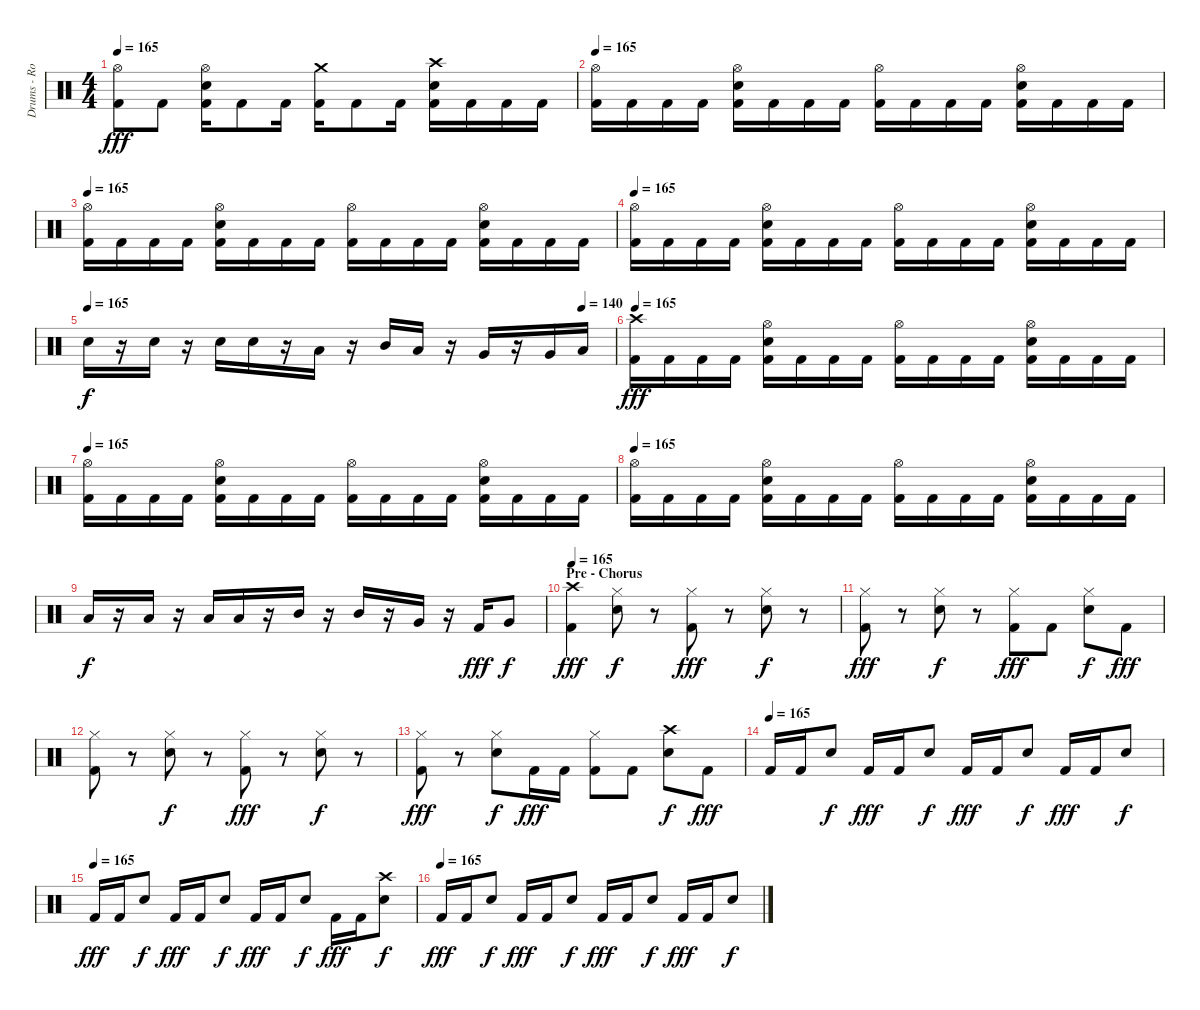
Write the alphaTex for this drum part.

\track ("Drums - Rodrigo" "Drums - Ro") {instrument percussion}
\staff {score}
\articulation defaults
\ts (4 4)
\tempo 165
\clef neutral
\ks c
("Hi-Hat (open)" "Kick (hit) 2").8{dy fff} "Kick (hit) 2".8 ("Hi-Hat (open)" "Electric Snare (hit)" "Kick (hit) 2").16 "Kick (hit) 2".8 "Kick (hit) 2".16 ("Crash medium (hit)" "Kick (hit) 2").16 "Kick (hit) 2".8 "Kick (hit) 2".16 ("Crash high (hit)" "Electric Snare (hit)" "Kick (hit) 2").16 "Kick (hit) 2".16 "Kick (hit) 2".16 "Kick (hit) 2".16 |
\tempo 165
("Hi-Hat (open)" "Kick (hit) 2").16 "Kick (hit) 2".16 "Kick (hit) 2".16 "Kick (hit) 2".16 ("Hi-Hat (open)" "Electric Snare (hit)" "Kick (hit) 2").16 "Kick (hit) 2".16 "Kick (hit) 2".16 "Kick (hit) 2".16 ("Hi-Hat (open)" "Kick (hit) 2").16 "Kick (hit) 2".16 "Kick (hit) 2".16 "Kick (hit) 2".16 ("Hi-Hat (open)" "Electric Snare (hit)" "Kick (hit) 2").16 "Kick (hit) 2".16 "Kick (hit) 2".16 "Kick (hit) 2".16 |
\tempo 165
("Hi-Hat (open)" "Kick (hit) 2").16 "Kick (hit) 2".16 "Kick (hit) 2".16 "Kick (hit) 2".16 ("Hi-Hat (open)" "Electric Snare (hit)" "Kick (hit) 2").16 "Kick (hit) 2".16 "Kick (hit) 2".16 "Kick (hit) 2".16 ("Hi-Hat (open)" "Kick (hit) 2").16 "Kick (hit) 2".16 "Kick (hit) 2".16 "Kick (hit) 2".16 ("Hi-Hat (open)" "Electric Snare (hit)" "Kick (hit) 2").16 "Kick (hit) 2".16 "Kick (hit) 2".16 "Kick (hit) 2".16 |
\tempo 165
("Hi-Hat (open)" "Kick (hit) 2").16 "Kick (hit) 2".16 "Kick (hit) 2".16 "Kick (hit) 2".16 ("Hi-Hat (open)" "Electric Snare (hit)" "Kick (hit) 2").16 "Kick (hit) 2".16 "Kick (hit) 2".16 "Kick (hit) 2".16 ("Hi-Hat (open)" "Kick (hit) 2").16 "Kick (hit) 2".16 "Kick (hit) 2".16 "Kick (hit) 2".16 ("Hi-Hat (open)" "Electric Snare (hit)" "Kick (hit) 2").16 "Kick (hit) 2".16 "Kick (hit) 2".16 "Kick (hit) 2".16 |
\tempo 165
\tempo (140 0.9375)
"Electric Snare (hit)".16{dy f} r.16 "Electric Snare (hit)".16 r.16 "Electric Snare (hit)".16 "Electric Snare (hit)".16 r.16 "Low Tom (hit)".16 r.16 "Mid Tom (hit)".16 "Low Tom (hit)".16 r.16 "Very Low Tom (hit)".16 r.16 "Very Low Tom (hit)".16 "Low Floor Tom (hit)".16 |
\tempo 165
("Crash high (hit)" "Kick (hit) 2").16{dy fff} "Kick (hit) 2".16 "Kick (hit) 2".16 "Kick (hit) 2".16 ("Hi-Hat (open)" "Electric Snare (hit)" "Kick (hit) 2").16 "Kick (hit) 2".16 "Kick (hit) 2".16 "Kick (hit) 2".16 ("Hi-Hat (open)" "Kick (hit) 2").16 "Kick (hit) 2".16 "Kick (hit) 2".16 "Kick (hit) 2".16 ("Hi-Hat (open)" "Electric Snare (hit)" "Kick (hit) 2").16 "Kick (hit) 2".16 "Kick (hit) 2".16 "Kick (hit) 2".16 |
\tempo 165
("Hi-Hat (open)" "Kick (hit) 2").16 "Kick (hit) 2".16 "Kick (hit) 2".16 "Kick (hit) 2".16 ("Hi-Hat (open)" "Electric Snare (hit)" "Kick (hit) 2").16 "Kick (hit) 2".16 "Kick (hit) 2".16 "Kick (hit) 2".16 ("Hi-Hat (open)" "Kick (hit) 2").16 "Kick (hit) 2".16 "Kick (hit) 2".16 "Kick (hit) 2".16 ("Hi-Hat (open)" "Electric Snare (hit)" "Kick (hit) 2").16 "Kick (hit) 2".16 "Kick (hit) 2".16 "Kick (hit) 2".16 |
\tempo 165
("Hi-Hat (open)" "Kick (hit) 2").16 "Kick (hit) 2".16 "Kick (hit) 2".16 "Kick (hit) 2".16 ("Hi-Hat (open)" "Electric Snare (hit)" "Kick (hit) 2").16 "Kick (hit) 2".16 "Kick (hit) 2".16 "Kick (hit) 2".16 ("Hi-Hat (open)" "Kick (hit) 2").16 "Kick (hit) 2".16 "Kick (hit) 2".16 "Kick (hit) 2".16 ("Hi-Hat (open)" "Electric Snare (hit)" "Kick (hit) 2").16 "Kick (hit) 2".16 "Kick (hit) 2".16 "Kick (hit) 2".16 |
"Low Tom (hit)".16{dy f} r.16 "Low Tom (hit)".16 r.16 "Low Tom (hit)".16 "Low Tom (hit)".16 r.16 "Mid Tom (hit)".16 r.16 "Mid Tom (hit)".16 r.16 "Very Low Tom (hit)".16 r.16 "Kick (hit) 2".16{dy fff} "Very Low Tom (hit)".8{dy f} |
\section ("" "Pre - Chorus")
\tempo 165
("Crash high (hit)" "Kick (hit) 2").4{dy fff} ("Hi-Hat (closed)" "Electric Snare (hit)").8{dy f} r.8 ("Hi-Hat (closed)" "Kick (hit) 2").8{dy fff} r.8 ("Hi-Hat (closed)" "Electric Snare (hit)").8{dy f} r.8 |
("Hi-Hat (closed)" "Kick (hit) 2").8{dy fff} r.8 ("Hi-Hat (closed)" "Electric Snare (hit)").8{dy f} r.8 ("Hi-Hat (closed)" "Kick (hit) 2").8{dy fff} "Kick (hit) 2".8 ("Hi-Hat (closed)" "Electric Snare (hit)").8{dy f} "Kick (hit) 2".8{dy fff} |
("Hi-Hat (closed)" "Kick (hit) 2").8 r.8 ("Hi-Hat (closed)" "Electric Snare (hit)").8{dy f} r.8 ("Hi-Hat (closed)" "Kick (hit) 2").8{dy fff} r.8 ("Hi-Hat (closed)" "Electric Snare (hit)").8{dy f} r.8 |
("Hi-Hat (closed)" "Kick (hit) 2").8{dy fff} r.8 ("Hi-Hat (closed)" "Electric Snare (hit)").8{dy f} "Kick (hit) 2".16{dy fff} "Kick (hit) 2".16 ("Hi-Hat (closed)" "Kick (hit) 2").8 "Kick (hit) 2".8 ("Crash high (hit)" "Electric Snare (hit)").8{dy f} "Kick (hit) 2".8{dy fff} |
\tempo (165)
"Kick (hit) 2".16 "Kick (hit) 2".16 "Electric Snare (hit)".8{dy f} "Kick (hit) 2".16{dy fff} "Kick (hit) 2".16 "Electric Snare (hit)".8{dy f} "Kick (hit) 2".16{dy fff} "Kick (hit) 2".16 "Electric Snare (hit)".8{dy f} "Kick (hit) 2".16{dy fff} "Kick (hit) 2".16 "Electric Snare (hit)".8{dy f} |
\tempo (165)
"Kick (hit) 2".16{dy fff} "Kick (hit) 2".16 "Electric Snare (hit)".8{dy f} "Kick (hit) 2".16{dy fff} "Kick (hit) 2".16 "Electric Snare (hit)".8{dy f} "Kick (hit) 2".16{dy fff} "Kick (hit) 2".16 "Electric Snare (hit)".8{dy f} "Kick (hit) 2".16{dy fff} "Kick (hit) 2".16 ("Crash high (hit)" "Electric Snare (hit)").8{dy f} |
\tempo (165)
"Kick (hit) 2".16{dy fff} "Kick (hit) 2".16 "Electric Snare (hit)".8{dy f} "Kick (hit) 2".16{dy fff} "Kick (hit) 2".16 "Electric Snare (hit)".8{dy f} "Kick (hit) 2".16{dy fff} "Kick (hit) 2".16 "Electric Snare (hit)".8{dy f} "Kick (hit) 2".16{dy fff} "Kick (hit) 2".16 "Electric Snare (hit)".8{dy f}
